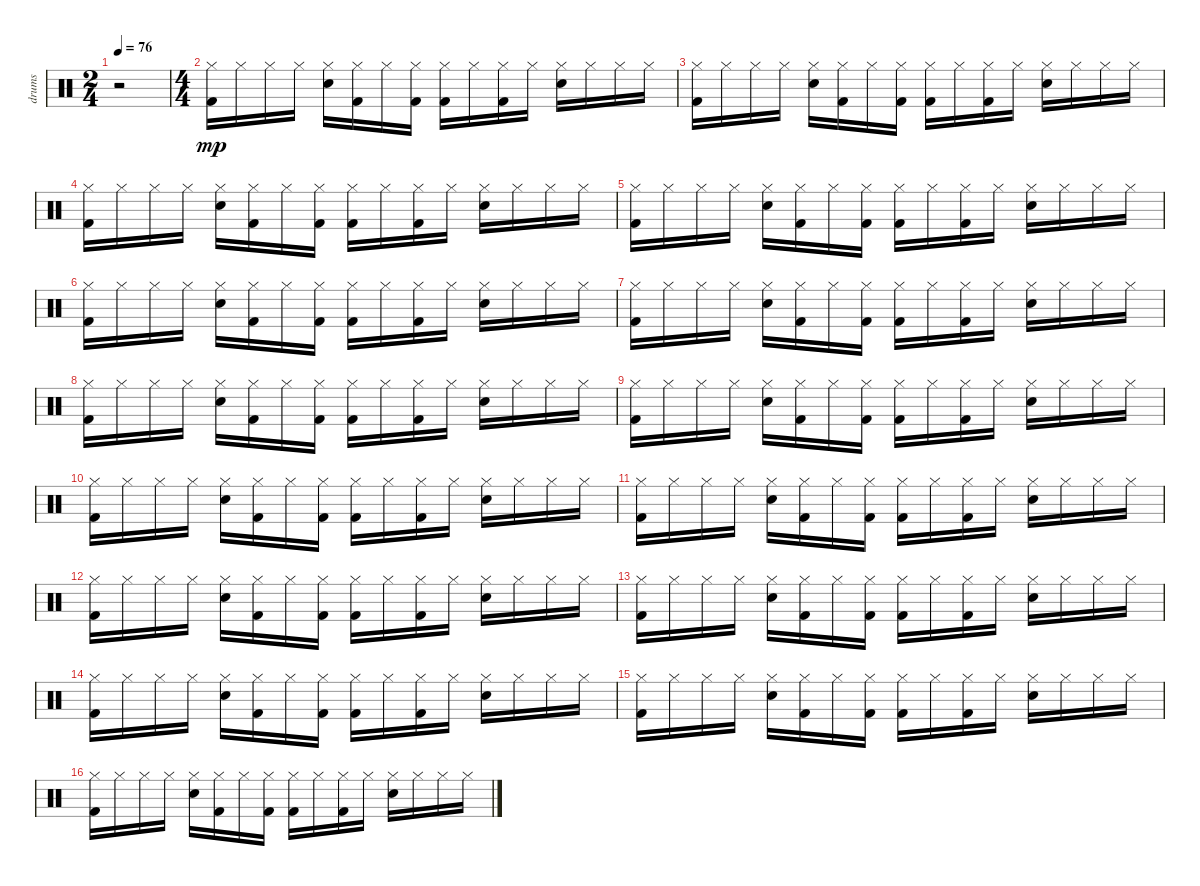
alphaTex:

\track ("drums" "drums") {instrument percussion}
\staff {score}
\articulation defaults
\ts (2 4)
\tempo 76
\clef neutral
\ks c
r.2{dy mp} |
\ts (4 4)
("Hi-Hat (closed)" "Kick (hit) 2").16 "Hi-Hat (closed)".16 "Hi-Hat (closed)".16 "Hi-Hat (closed)".16 ("Hi-Hat (closed)" "Snare (hit) 2").16 ("Hi-Hat (closed)" "Kick (hit) 2").16 "Hi-Hat (closed)".16 ("Hi-Hat (closed)" "Kick (hit) 2").16 ("Hi-Hat (closed)" "Kick (hit) 2").16 "Hi-Hat (closed)".16 ("Hi-Hat (closed)" "Kick (hit) 2").16 "Hi-Hat (closed)".16 ("Snare (hit) 2" "Hi-Hat (closed)").16 "Hi-Hat (closed)".16 "Hi-Hat (closed)".16 "Hi-Hat (closed)".16 |
("Hi-Hat (closed)" "Kick (hit) 2").16 "Hi-Hat (closed)".16 "Hi-Hat (closed)".16 "Hi-Hat (closed)".16 ("Hi-Hat (closed)" "Snare (hit) 2").16 ("Hi-Hat (closed)" "Kick (hit) 2").16 "Hi-Hat (closed)".16 ("Hi-Hat (closed)" "Kick (hit) 2").16 ("Hi-Hat (closed)" "Kick (hit) 2").16 "Hi-Hat (closed)".16 ("Hi-Hat (closed)" "Kick (hit) 2").16 "Hi-Hat (closed)".16 ("Snare (hit) 2" "Hi-Hat (closed)").16 "Hi-Hat (closed)".16 "Hi-Hat (closed)".16 "Hi-Hat (closed)".16 |
("Hi-Hat (closed)" "Kick (hit) 2").16 "Hi-Hat (closed)".16 "Hi-Hat (closed)".16 "Hi-Hat (closed)".16 ("Hi-Hat (closed)" "Snare (hit) 2").16 ("Hi-Hat (closed)" "Kick (hit) 2").16 "Hi-Hat (closed)".16 ("Hi-Hat (closed)" "Kick (hit) 2").16 ("Hi-Hat (closed)" "Kick (hit) 2").16 "Hi-Hat (closed)".16 ("Hi-Hat (closed)" "Kick (hit) 2").16 "Hi-Hat (closed)".16 ("Snare (hit) 2" "Hi-Hat (closed)").16 "Hi-Hat (closed)".16 "Hi-Hat (closed)".16 "Hi-Hat (closed)".16 |
("Hi-Hat (closed)" "Kick (hit) 2").16 "Hi-Hat (closed)".16 "Hi-Hat (closed)".16 "Hi-Hat (closed)".16 ("Hi-Hat (closed)" "Snare (hit) 2").16 ("Hi-Hat (closed)" "Kick (hit) 2").16 "Hi-Hat (closed)".16 ("Hi-Hat (closed)" "Kick (hit) 2").16 ("Hi-Hat (closed)" "Kick (hit) 2").16 "Hi-Hat (closed)".16 ("Hi-Hat (closed)" "Kick (hit) 2").16 "Hi-Hat (closed)".16 ("Snare (hit) 2" "Hi-Hat (closed)").16 "Hi-Hat (closed)".16 "Hi-Hat (closed)".16 "Hi-Hat (closed)".16 |
("Hi-Hat (closed)" "Kick (hit) 2").16 "Hi-Hat (closed)".16 "Hi-Hat (closed)".16 "Hi-Hat (closed)".16 ("Hi-Hat (closed)" "Snare (hit) 2").16 ("Hi-Hat (closed)" "Kick (hit) 2").16 "Hi-Hat (closed)".16 ("Hi-Hat (closed)" "Kick (hit) 2").16 ("Hi-Hat (closed)" "Kick (hit) 2").16 "Hi-Hat (closed)".16 ("Hi-Hat (closed)" "Kick (hit) 2").16 "Hi-Hat (closed)".16 ("Snare (hit) 2" "Hi-Hat (closed)").16 "Hi-Hat (closed)".16 "Hi-Hat (closed)".16 "Hi-Hat (closed)".16 |
("Hi-Hat (closed)" "Kick (hit) 2").16 "Hi-Hat (closed)".16 "Hi-Hat (closed)".16 "Hi-Hat (closed)".16 ("Hi-Hat (closed)" "Snare (hit) 2").16 ("Hi-Hat (closed)" "Kick (hit) 2").16 "Hi-Hat (closed)".16 ("Hi-Hat (closed)" "Kick (hit) 2").16 ("Hi-Hat (closed)" "Kick (hit) 2").16 "Hi-Hat (closed)".16 ("Hi-Hat (closed)" "Kick (hit) 2").16 "Hi-Hat (closed)".16 ("Snare (hit) 2" "Hi-Hat (closed)").16 "Hi-Hat (closed)".16 "Hi-Hat (closed)".16 "Hi-Hat (closed)".16 |
("Hi-Hat (closed)" "Kick (hit) 2").16 "Hi-Hat (closed)".16 "Hi-Hat (closed)".16 "Hi-Hat (closed)".16 ("Hi-Hat (closed)" "Snare (hit) 2").16 ("Hi-Hat (closed)" "Kick (hit) 2").16 "Hi-Hat (closed)".16 ("Hi-Hat (closed)" "Kick (hit) 2").16 ("Hi-Hat (closed)" "Kick (hit) 2").16 "Hi-Hat (closed)".16 ("Hi-Hat (closed)" "Kick (hit) 2").16 "Hi-Hat (closed)".16 ("Snare (hit) 2" "Hi-Hat (closed)").16 "Hi-Hat (closed)".16 "Hi-Hat (closed)".16 "Hi-Hat (closed)".16 |
("Hi-Hat (closed)" "Kick (hit) 2").16 "Hi-Hat (closed)".16 "Hi-Hat (closed)".16 "Hi-Hat (closed)".16 ("Hi-Hat (closed)" "Snare (hit) 2").16 ("Hi-Hat (closed)" "Kick (hit) 2").16 "Hi-Hat (closed)".16 ("Hi-Hat (closed)" "Kick (hit) 2").16 ("Hi-Hat (closed)" "Kick (hit) 2").16 "Hi-Hat (closed)".16 ("Hi-Hat (closed)" "Kick (hit) 2").16 "Hi-Hat (closed)".16 ("Snare (hit) 2" "Hi-Hat (closed)").16 "Hi-Hat (closed)".16 "Hi-Hat (closed)".16 "Hi-Hat (closed)".16 |
("Hi-Hat (closed)" "Kick (hit) 2").16 "Hi-Hat (closed)".16 "Hi-Hat (closed)".16 "Hi-Hat (closed)".16 ("Hi-Hat (closed)" "Snare (hit) 2").16 ("Hi-Hat (closed)" "Kick (hit) 2").16 "Hi-Hat (closed)".16 ("Hi-Hat (closed)" "Kick (hit) 2").16 ("Hi-Hat (closed)" "Kick (hit) 2").16 "Hi-Hat (closed)".16 ("Hi-Hat (closed)" "Kick (hit) 2").16 "Hi-Hat (closed)".16 ("Snare (hit) 2" "Hi-Hat (closed)").16 "Hi-Hat (closed)".16 "Hi-Hat (closed)".16 "Hi-Hat (closed)".16 |
("Hi-Hat (closed)" "Kick (hit) 2").16 "Hi-Hat (closed)".16 "Hi-Hat (closed)".16 "Hi-Hat (closed)".16 ("Hi-Hat (closed)" "Snare (hit) 2").16 ("Hi-Hat (closed)" "Kick (hit) 2").16 "Hi-Hat (closed)".16 ("Hi-Hat (closed)" "Kick (hit) 2").16 ("Hi-Hat (closed)" "Kick (hit) 2").16 "Hi-Hat (closed)".16 ("Hi-Hat (closed)" "Kick (hit) 2").16 "Hi-Hat (closed)".16 ("Snare (hit) 2" "Hi-Hat (closed)").16 "Hi-Hat (closed)".16 "Hi-Hat (closed)".16 "Hi-Hat (closed)".16 |
("Hi-Hat (closed)" "Kick (hit) 2").16 "Hi-Hat (closed)".16 "Hi-Hat (closed)".16 "Hi-Hat (closed)".16 ("Hi-Hat (closed)" "Snare (hit) 2").16 ("Hi-Hat (closed)" "Kick (hit) 2").16 "Hi-Hat (closed)".16 ("Hi-Hat (closed)" "Kick (hit) 2").16 ("Hi-Hat (closed)" "Kick (hit) 2").16 "Hi-Hat (closed)".16 ("Hi-Hat (closed)" "Kick (hit) 2").16 "Hi-Hat (closed)".16 ("Snare (hit) 2" "Hi-Hat (closed)").16 "Hi-Hat (closed)".16 "Hi-Hat (closed)".16 "Hi-Hat (closed)".16 |
("Hi-Hat (closed)" "Kick (hit) 2").16 "Hi-Hat (closed)".16 "Hi-Hat (closed)".16 "Hi-Hat (closed)".16 ("Hi-Hat (closed)" "Snare (hit) 2").16 ("Hi-Hat (closed)" "Kick (hit) 2").16 "Hi-Hat (closed)".16 ("Hi-Hat (closed)" "Kick (hit) 2").16 ("Hi-Hat (closed)" "Kick (hit) 2").16 "Hi-Hat (closed)".16 ("Hi-Hat (closed)" "Kick (hit) 2").16 "Hi-Hat (closed)".16 ("Snare (hit) 2" "Hi-Hat (closed)").16 "Hi-Hat (closed)".16 "Hi-Hat (closed)".16 "Hi-Hat (closed)".16 |
("Hi-Hat (closed)" "Kick (hit) 2").16 "Hi-Hat (closed)".16 "Hi-Hat (closed)".16 "Hi-Hat (closed)".16 ("Hi-Hat (closed)" "Snare (hit) 2").16 ("Hi-Hat (closed)" "Kick (hit) 2").16 "Hi-Hat (closed)".16 ("Hi-Hat (closed)" "Kick (hit) 2").16 ("Hi-Hat (closed)" "Kick (hit) 2").16 "Hi-Hat (closed)".16 ("Hi-Hat (closed)" "Kick (hit) 2").16 "Hi-Hat (closed)".16 ("Snare (hit) 2" "Hi-Hat (closed)").16 "Hi-Hat (closed)".16 "Hi-Hat (closed)".16 "Hi-Hat (closed)".16 |
("Hi-Hat (closed)" "Kick (hit) 2").16 "Hi-Hat (closed)".16 "Hi-Hat (closed)".16 "Hi-Hat (closed)".16 ("Hi-Hat (closed)" "Snare (hit) 2").16 ("Hi-Hat (closed)" "Kick (hit) 2").16 "Hi-Hat (closed)".16 ("Hi-Hat (closed)" "Kick (hit) 2").16 ("Hi-Hat (closed)" "Kick (hit) 2").16 "Hi-Hat (closed)".16 ("Hi-Hat (closed)" "Kick (hit) 2").16 "Hi-Hat (closed)".16 ("Snare (hit) 2" "Hi-Hat (closed)").16 "Hi-Hat (closed)".16 "Hi-Hat (closed)".16 "Hi-Hat (closed)".16 |
("Hi-Hat (closed)" "Kick (hit) 2").16 "Hi-Hat (closed)".16 "Hi-Hat (closed)".16 "Hi-Hat (closed)".16 ("Hi-Hat (closed)" "Snare (hit) 2").16 ("Hi-Hat (closed)" "Kick (hit) 2").16 "Hi-Hat (closed)".16 ("Hi-Hat (closed)" "Kick (hit) 2").16 ("Hi-Hat (closed)" "Kick (hit) 2").16 "Hi-Hat (closed)".16 ("Hi-Hat (closed)" "Kick (hit) 2").16 "Hi-Hat (closed)".16 ("Snare (hit) 2" "Hi-Hat (closed)").16 "Hi-Hat (closed)".16 "Hi-Hat (closed)".16 "Hi-Hat (closed)".16
